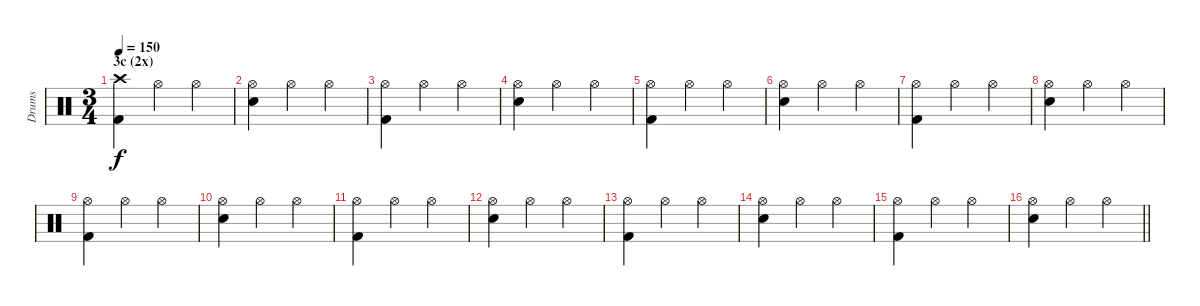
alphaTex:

\track ("Drums" "Drums") {instrument percussion}
\staff {score}
\articulation defaults
\ts (3 4)
\section ("" "3c (2x)")
\tempo 150
\clef neutral
\ks c
("Crash high (hit)" "Kick (hit) 2").4{dy f} "Hi-Hat (open)".4 "Hi-Hat (open)".4 |
("Hi-Hat (open)" "Snare (hit) 2").4 "Hi-Hat (open)".4 "Hi-Hat (open)".4 |
("Hi-Hat (open)" "Kick (hit) 2").4 "Hi-Hat (open)".4 "Hi-Hat (open)".4 |
("Hi-Hat (open)" "Snare (hit) 2").4 "Hi-Hat (open)".4 "Hi-Hat (open)".4 |
("Hi-Hat (open)" "Kick (hit) 2").4 "Hi-Hat (open)".4 "Hi-Hat (open)".4 |
("Hi-Hat (open)" "Snare (hit) 2").4 "Hi-Hat (open)".4 "Hi-Hat (open)".4 |
("Hi-Hat (open)" "Kick (hit) 2").4 "Hi-Hat (open)".4 "Hi-Hat (open)".4 |
("Hi-Hat (open)" "Snare (hit) 2").4 "Hi-Hat (open)".4 "Hi-Hat (open)".4 |
("Hi-Hat (open)" "Kick (hit) 2").4 "Hi-Hat (open)".4 "Hi-Hat (open)".4 |
("Hi-Hat (open)" "Snare (hit) 2").4 "Hi-Hat (open)".4 "Hi-Hat (open)".4 |
("Hi-Hat (open)" "Kick (hit) 2").4 "Hi-Hat (open)".4 "Hi-Hat (open)".4 |
("Hi-Hat (open)" "Snare (hit) 2").4 "Hi-Hat (open)".4 "Hi-Hat (open)".4 |
("Hi-Hat (open)" "Kick (hit) 2").4 "Hi-Hat (open)".4 "Hi-Hat (open)".4 |
("Hi-Hat (open)" "Snare (hit) 2").4 "Hi-Hat (open)".4 "Hi-Hat (open)".4 |
("Hi-Hat (open)" "Kick (hit) 2").4 "Hi-Hat (open)".4 "Hi-Hat (open)".4 |
\barLineRight lightlight
("Hi-Hat (open)" "Snare (hit) 2").4 "Hi-Hat (open)".4 "Hi-Hat (open)".4
